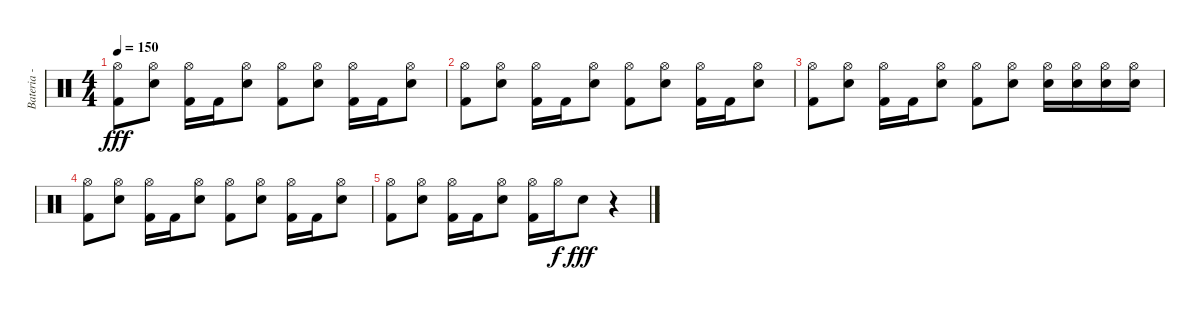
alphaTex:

\track ("Bateria - Larzon" "Bateria - ") {instrument percussion}
\staff {score}
\articulation defaults
\ts (4 4)
\tempo 150
\clef neutral
\ks c
("Kick (hit) 2" "Hi-Hat (open)").8{dy fff} ("Hi-Hat (open)" "Snare (hit) 2").8 ("Kick (hit) 2" "Hi-Hat (open)").16 "Kick (hit) 2".16 ("Hi-Hat (open)" "Snare (hit) 2").8 ("Kick (hit) 2" "Hi-Hat (open)").8 ("Hi-Hat (open)" "Snare (hit) 2").8 ("Kick (hit) 2" "Hi-Hat (open)").16 "Kick (hit) 2".16 ("Hi-Hat (open)" "Snare (hit) 2").8 |
("Kick (hit) 2" "Hi-Hat (open)").8 ("Hi-Hat (open)" "Snare (hit) 2").8 ("Kick (hit) 2" "Hi-Hat (open)").16 "Kick (hit) 2".16 ("Hi-Hat (open)" "Snare (hit) 2").8 ("Kick (hit) 2" "Hi-Hat (open)").8 ("Hi-Hat (open)" "Snare (hit) 2").8 ("Kick (hit) 2" "Hi-Hat (open)").16 "Kick (hit) 2".16 ("Hi-Hat (open)" "Snare (hit) 2").8 |
("Kick (hit) 2" "Hi-Hat (open)").8 ("Hi-Hat (open)" "Snare (hit) 2").8 ("Kick (hit) 2" "Hi-Hat (open)").16 "Kick (hit) 2".16 ("Hi-Hat (open)" "Snare (hit) 2").8 ("Kick (hit) 2" "Hi-Hat (open)").8 ("Hi-Hat (open)" "Snare (hit) 2").8 ("Hi-Hat (open)" "Snare (hit) 2").16 ("Hi-Hat (open)" "Snare (hit) 2").16 ("Hi-Hat (open)" "Snare (hit) 2").16 ("Hi-Hat (open)" "Snare (hit) 2").16 |
("Kick (hit) 2" "Hi-Hat (open)").8 ("Hi-Hat (open)" "Snare (hit) 2").8 ("Kick (hit) 2" "Hi-Hat (open)").16 "Kick (hit) 2".16 ("Hi-Hat (open)" "Snare (hit) 2").8 ("Kick (hit) 2" "Hi-Hat (open)").8 ("Hi-Hat (open)" "Snare (hit) 2").8 ("Kick (hit) 2" "Hi-Hat (open)").16 "Kick (hit) 2".16 ("Hi-Hat (open)" "Snare (hit) 2").8 |
("Kick (hit) 2" "Hi-Hat (open)").8 ("Hi-Hat (open)" "Snare (hit) 2").8 ("Kick (hit) 2" "Hi-Hat (open)").16 "Kick (hit) 2".16 ("Hi-Hat (open)" "Snare (hit) 2").8 ("Kick (hit) 2" "Hi-Hat (open)").16 "Hi-Hat (open)".16{dy f} "Snare (hit) 2".8{dy fff} r.4
